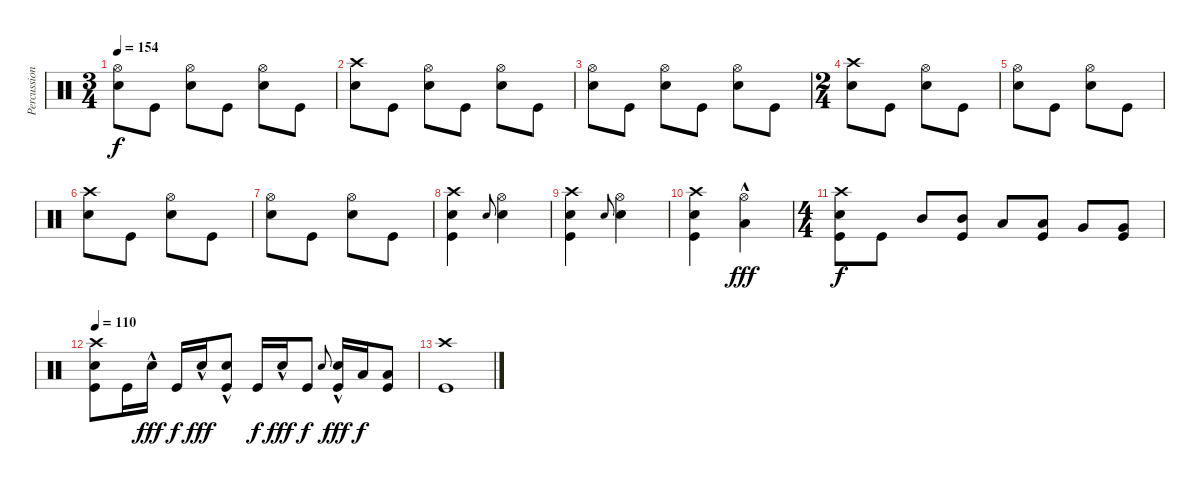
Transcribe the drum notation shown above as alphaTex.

\track ("Percussions" "Percussion") {instrument percussion}
\staff {score}
\articulation defaults
\ts (3 4)
\tempo 154
\clef neutral
\ks c
("Snare (hit) 2" "Hi-Hat (open)").8{dy f} "Kick (hit)".8 ("Snare (hit) 2" "Hi-Hat (open)").8 "Kick (hit)".8 ("Snare (hit) 2" "Hi-Hat (open)").8 "Kick (hit)".8 |
("Snare (hit) 2" "Crash high (hit)").8 "Kick (hit)".8 ("Snare (hit) 2" "Hi-Hat (open)").8 "Kick (hit)".8 ("Snare (hit) 2" "Hi-Hat (open)").8 "Kick (hit)".8 |
("Snare (hit) 2" "Hi-Hat (open)").8 "Kick (hit)".8 ("Snare (hit) 2" "Hi-Hat (open)").8 "Kick (hit)".8 ("Snare (hit) 2" "Hi-Hat (open)").8 "Kick (hit)".8 |
\ts (2 4)
("Snare (hit) 2" "Crash high (hit)").8 "Kick (hit)".8 ("Snare (hit) 2" "Hi-Hat (open)").8 "Kick (hit)".8 |
("Snare (hit) 2" "Hi-Hat (open)").8 "Kick (hit)".8 ("Snare (hit) 2" "Hi-Hat (open)").8 "Kick (hit)".8 |
("Snare (hit) 2" "Crash high (hit)").8 "Kick (hit)".8 ("Snare (hit) 2" "Hi-Hat (open)").8 "Kick (hit)".8 |
("Snare (hit) 2" "Hi-Hat (open)").8 "Kick (hit)".8 ("Snare (hit) 2" "Hi-Hat (open)").8 "Kick (hit)".8 |
("Snare (hit) 2" "Crash high (hit)" "Kick (hit)").4 "Snare (hit) 2".8{gr onbeat} ("Snare (hit) 2" "Hi-Hat (open)").4 |
("Snare (hit) 2" "Crash high (hit)" "Kick (hit)").4 "Snare (hit) 2".8{gr onbeat} ("Snare (hit) 2" "Hi-Hat (open)").4 |
("Snare (hit) 2" "Crash high (hit)" "Kick (hit)").4 ("Low Tom (hit)"{hac} "Hi-Hat (open)").4{dy fff} |
\ts (4 4)
("Snare (hit) 2" "Crash high (hit)" "Kick (hit)").8{dy f} "Kick (hit)".8 "Mid Tom (hit)".8 ("Kick (hit)" "Mid Tom (hit)").8 "Low Tom (hit)".8 ("Kick (hit)" "Low Tom (hit)").8 "Very Low Tom (hit)".8 ("Kick (hit)" "Very Low Tom (hit)").8 |
\tempo 110
("Snare (hit) 2" "Crash high (hit)" "Kick (hit)").8 "Kick (hit)".16 "Snare (hit) 2"{hac}.16{dy fff} "Kick (hit)".16{dy f} "Snare (hit) 2"{hac}.16{dy fff} ("Snare (hit) 2"{hac} "Kick (hit)").8 "Kick (hit)".16{dy f} "Snare (hit) 2"{hac}.16{dy fff} "Kick (hit)".8{dy f} "Snare (hit) 2".8{gr onbeat} ("Snare (hit) 2"{hac} "Kick (hit)").16{dy fff} "Low Tom (hit)".16{dy f} ("Low Tom (hit)" "Kick (hit)").8 |
("Kick (hit)" "Crash high (hit)").1
